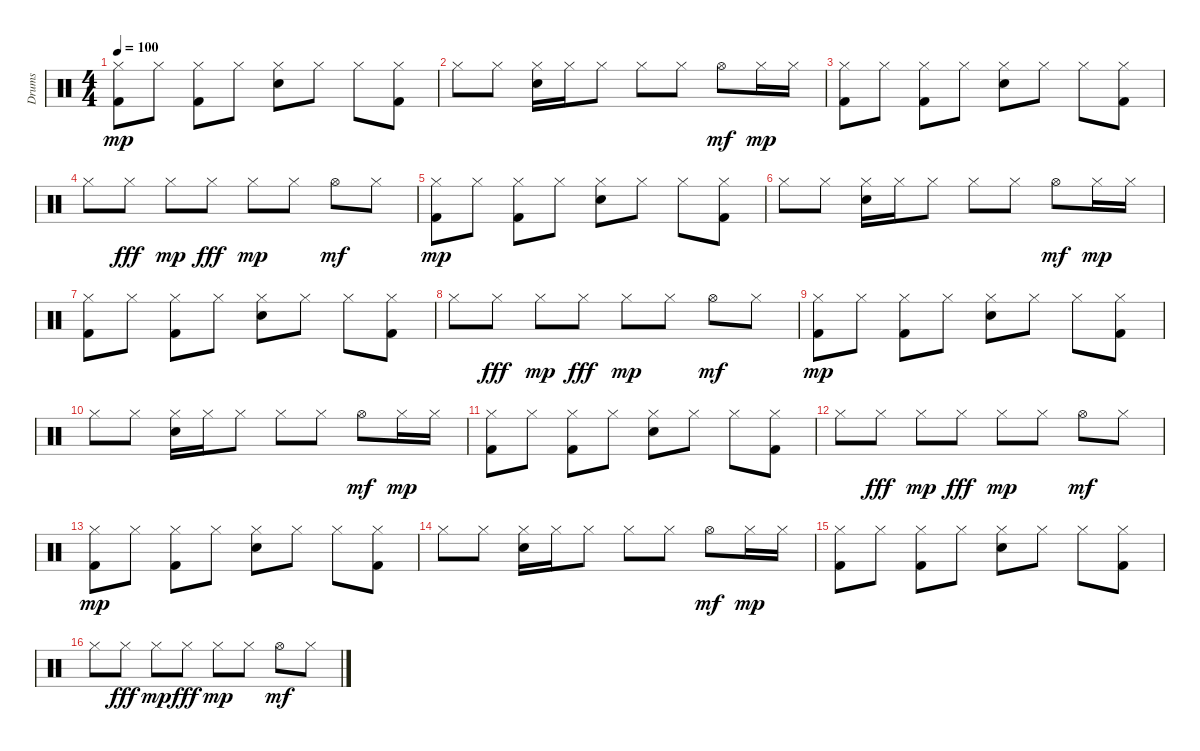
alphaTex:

\track ("Drums" "Drums") {instrument percussion}
\staff {score}
\articulation defaults
\ts (4 4)
\tempo 100
\clef neutral
\ks c
("Kick (hit) 2" "Hi-Hat (closed)").8{dy mp balance 0} "Hi-Hat (closed)".8 ("Kick (hit) 2" "Hi-Hat (closed)").8 "Hi-Hat (closed)".8 ("Hi-Hat (closed)" "Electric Snare (hit)").8 "Hi-Hat (closed)".8 "Hi-Hat (closed)".8 ("Kick (hit) 2" "Hi-Hat (closed)").8 |
"Hi-Hat (closed)".8 "Hi-Hat (closed)".8 ("Hi-Hat (closed)" "Electric Snare (hit)").16 "Hi-Hat (closed)".16 "Hi-Hat (closed)".8 "Hi-Hat (closed)".8 "Hi-Hat (closed)".8 "Hi-Hat (open)".8{dy mf} "Hi-Hat (closed)".16{dy mp} "Hi-Hat (closed)".16 |
("Kick (hit) 2" "Hi-Hat (closed)").8{balance 16} "Hi-Hat (closed)".8 ("Kick (hit) 2" "Hi-Hat (closed)").8 "Hi-Hat (closed)".8 ("Hi-Hat (closed)" "Electric Snare (hit)").8 "Hi-Hat (closed)".8 "Hi-Hat (closed)".8 ("Kick (hit) 2" "Hi-Hat (closed)").8 |
"Hi-Hat (closed)".8 "Hi-Hat (closed)".8{dy fff} "Hi-Hat (closed)".8{dy mp} "Hi-Hat (closed)".8{dy fff} "Hi-Hat (closed)".8{dy mp} "Hi-Hat (closed)".8 "Hi-Hat (open)".8{dy mf} "Hi-Hat (closed)".8 |
("Kick (hit) 2" "Hi-Hat (closed)").8{dy mp balance 0} "Hi-Hat (closed)".8 ("Kick (hit) 2" "Hi-Hat (closed)").8 "Hi-Hat (closed)".8 ("Hi-Hat (closed)" "Electric Snare (hit)").8 "Hi-Hat (closed)".8 "Hi-Hat (closed)".8 ("Kick (hit) 2" "Hi-Hat (closed)").8 |
"Hi-Hat (closed)".8 "Hi-Hat (closed)".8 ("Hi-Hat (closed)" "Electric Snare (hit)").16 "Hi-Hat (closed)".16 "Hi-Hat (closed)".8 "Hi-Hat (closed)".8 "Hi-Hat (closed)".8 "Hi-Hat (open)".8{dy mf} "Hi-Hat (closed)".16{dy mp} "Hi-Hat (closed)".16 |
("Kick (hit) 2" "Hi-Hat (closed)").8{balance 16} "Hi-Hat (closed)".8 ("Kick (hit) 2" "Hi-Hat (closed)").8 "Hi-Hat (closed)".8 ("Hi-Hat (closed)" "Electric Snare (hit)").8 "Hi-Hat (closed)".8 "Hi-Hat (closed)".8 ("Kick (hit) 2" "Hi-Hat (closed)").8 |
"Hi-Hat (closed)".8 "Hi-Hat (closed)".8{dy fff} "Hi-Hat (closed)".8{dy mp} "Hi-Hat (closed)".8{dy fff} "Hi-Hat (closed)".8{dy mp} "Hi-Hat (closed)".8 "Hi-Hat (open)".8{dy mf} "Hi-Hat (closed)".8 |
("Kick (hit) 2" "Hi-Hat (closed)").8{dy mp balance 0} "Hi-Hat (closed)".8 ("Kick (hit) 2" "Hi-Hat (closed)").8 "Hi-Hat (closed)".8 ("Hi-Hat (closed)" "Electric Snare (hit)").8 "Hi-Hat (closed)".8 "Hi-Hat (closed)".8 ("Kick (hit) 2" "Hi-Hat (closed)").8 |
"Hi-Hat (closed)".8 "Hi-Hat (closed)".8 ("Hi-Hat (closed)" "Electric Snare (hit)").16 "Hi-Hat (closed)".16 "Hi-Hat (closed)".8 "Hi-Hat (closed)".8 "Hi-Hat (closed)".8 "Hi-Hat (open)".8{dy mf} "Hi-Hat (closed)".16{dy mp} "Hi-Hat (closed)".16 |
("Kick (hit) 2" "Hi-Hat (closed)").8{balance 16} "Hi-Hat (closed)".8 ("Kick (hit) 2" "Hi-Hat (closed)").8 "Hi-Hat (closed)".8 ("Hi-Hat (closed)" "Electric Snare (hit)").8 "Hi-Hat (closed)".8 "Hi-Hat (closed)".8 ("Kick (hit) 2" "Hi-Hat (closed)").8 |
"Hi-Hat (closed)".8 "Hi-Hat (closed)".8{dy fff} "Hi-Hat (closed)".8{dy mp} "Hi-Hat (closed)".8{dy fff} "Hi-Hat (closed)".8{dy mp} "Hi-Hat (closed)".8 "Hi-Hat (open)".8{dy mf} "Hi-Hat (closed)".8 |
("Kick (hit) 2" "Hi-Hat (closed)").8{dy mp balance 0} "Hi-Hat (closed)".8 ("Kick (hit) 2" "Hi-Hat (closed)").8 "Hi-Hat (closed)".8 ("Hi-Hat (closed)" "Electric Snare (hit)").8 "Hi-Hat (closed)".8 "Hi-Hat (closed)".8 ("Kick (hit) 2" "Hi-Hat (closed)").8 |
"Hi-Hat (closed)".8 "Hi-Hat (closed)".8 ("Hi-Hat (closed)" "Electric Snare (hit)").16 "Hi-Hat (closed)".16 "Hi-Hat (closed)".8 "Hi-Hat (closed)".8 "Hi-Hat (closed)".8 "Hi-Hat (open)".8{dy mf} "Hi-Hat (closed)".16{dy mp} "Hi-Hat (closed)".16 |
("Kick (hit) 2" "Hi-Hat (closed)").8{balance 16} "Hi-Hat (closed)".8 ("Kick (hit) 2" "Hi-Hat (closed)").8 "Hi-Hat (closed)".8 ("Hi-Hat (closed)" "Electric Snare (hit)").8 "Hi-Hat (closed)".8 "Hi-Hat (closed)".8 ("Kick (hit) 2" "Hi-Hat (closed)").8 |
"Hi-Hat (closed)".8 "Hi-Hat (closed)".8{dy fff} "Hi-Hat (closed)".8{dy mp} "Hi-Hat (closed)".8{dy fff} "Hi-Hat (closed)".8{dy mp} "Hi-Hat (closed)".8 "Hi-Hat (open)".8{dy mf} "Hi-Hat (closed)".8
